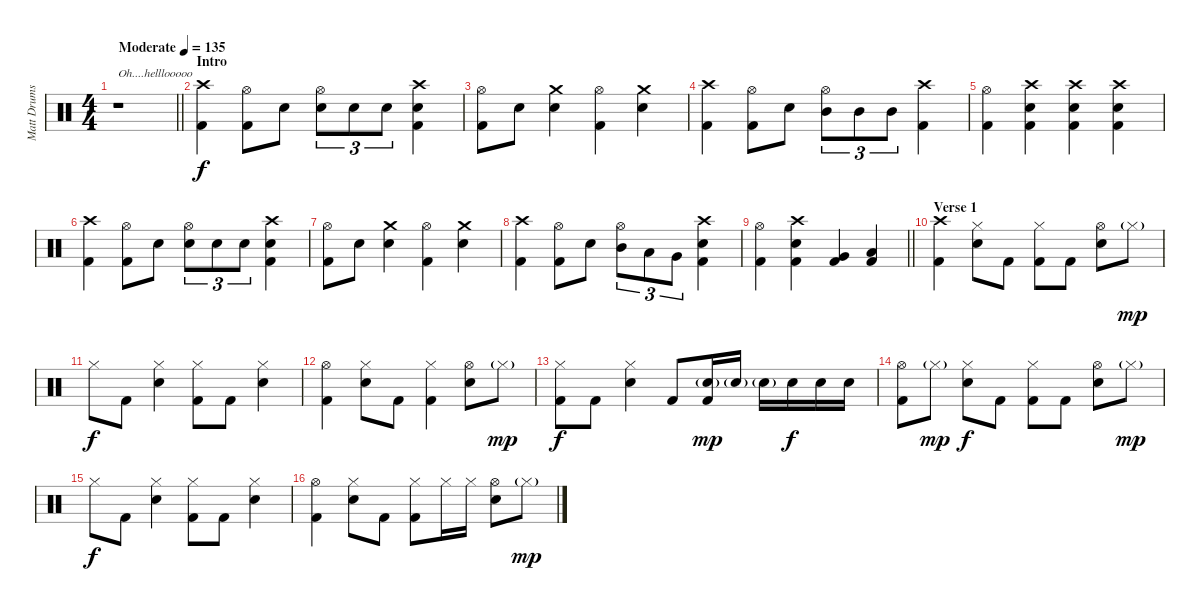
\track ("Matt Drums" "Matt Drums") {instrument percussion}
\staff {score}
\articulation defaults
\ts (4 4)
\tempo (135 "Moderate")
\clef neutral
\barLineRight lightlight
\ks c
r.1{txt "Oh....helllooooo" dy f} |
\section ("" "Intro")
("Crash high (hit)" "Kick (hit) 2").4 ("Hi-Hat (open)" "Kick (hit) 2").8 "Snare (hit) 2".8 ("Hi-Hat (open)" "Snare (hit) 2").8{tu (3 2)} "Snare (hit) 2".8{tu (3 2)} "Snare (hit) 2".8{tu (3 2)} ("Crash high (hit)" "Snare (hit) 2" "Kick (hit) 2").4 |
("Hi-Hat (open)" "Kick (hit) 2").8 "Snare (hit) 2".8 ("Crash medium (hit)" "Snare (hit) 2").4 ("Hi-Hat (open)" "Kick (hit) 2").4 ("Crash medium (hit)" "Snare (hit) 2").4 |
("Crash high (hit)" "Kick (hit) 2").4 ("Hi-Hat (open)" "Kick (hit) 2").8 "Snare (hit) 2".8 ("Hi-Hat (open)" "Mid Tom (hit)").8{tu (3 2)} "Mid Tom (hit)".8{tu (3 2)} "Mid Tom (hit)".8{tu (3 2)} ("Crash high (hit)" "Kick (hit) 2").4 |
("Hi-Hat (open)" "Kick (hit) 2").4 ("Crash high (hit)" "Snare (hit) 2" "Kick (hit) 2").4 ("Crash high (hit)" "Snare (hit) 2" "Kick (hit) 2").4 ("Crash high (hit)" "Snare (hit) 2" "Kick (hit) 2").4 |
("Crash high (hit)" "Kick (hit) 2").4 ("Hi-Hat (open)" "Kick (hit) 2").8 "Snare (hit) 2".8 ("Hi-Hat (open)" "Snare (hit) 2").8{tu (3 2)} "Snare (hit) 2".8{tu (3 2)} "Snare (hit) 2".8{tu (3 2)} ("Crash high (hit)" "Snare (hit) 2" "Kick (hit) 2").4 |
("Hi-Hat (open)" "Kick (hit) 2").8 "Snare (hit) 2".8 ("Crash medium (hit)" "Snare (hit) 2").4 ("Hi-Hat (open)" "Kick (hit) 2").4 ("Crash medium (hit)" "Snare (hit) 2").4 |
("Crash high (hit)" "Kick (hit) 2").4 ("Hi-Hat (open)" "Kick (hit) 2").8 "Snare (hit) 2".8 ("Hi-Hat (open)" "Mid Tom (hit)").8{tu (3 2)} "Low Tom (hit)".8{tu (3 2)} "Very Low Tom (hit)".8{tu (3 2)} ("Crash high (hit)" "Snare (hit) 2" "Kick (hit) 2").4 |
\barLineRight lightlight
("Hi-Hat (open)" "Kick (hit) 2").4 ("Crash high (hit)" "Snare (hit) 2" "Kick (hit) 2").4 ("Very Low Tom (hit)" "Kick (hit) 2").4 ("Low Floor Tom (hit)" "Kick (hit) 2").4 |
\section ("" "Verse 1")
("Crash high (hit)" "Kick (hit) 2").4 ("Hi-Hat (closed)" "Snare (hit) 2").8 "Kick (hit) 2".8 ("Hi-Hat (closed)" "Kick (hit) 2").8 "Kick (hit) 2".8 ("Hi-Hat (open)" "Snare (hit) 2").8 "Hi-Hat (closed)"{g}.8{dy mp} |
"Hi-Hat (closed)".8{dy f} "Kick (hit) 2".8 ("Hi-Hat (closed)" "Snare (hit) 2").4 ("Hi-Hat (closed)" "Kick (hit) 2").8 "Kick (hit) 2".8 ("Hi-Hat (closed)" "Snare (hit) 2").4 |
("Hi-Hat (open)" "Kick (hit) 2").4 ("Hi-Hat (closed)" "Snare (hit) 2").8 "Kick (hit) 2".8 ("Hi-Hat (closed)" "Kick (hit) 2").4 ("Hi-Hat (open)" "Snare (hit) 2").8 "Hi-Hat (closed)"{g}.8{dy mp} |
("Hi-Hat (closed)" "Kick (hit) 2").8{dy f} "Kick (hit) 2".8 ("Hi-Hat (closed)" "Snare (hit) 2").4 "Kick (hit) 2".8 ("Snare (hit) 2"{g} "Kick (hit) 2").16{dy mp} "Snare (hit) 2"{g}.16 "Snare (hit) 2"{g}.16 "Snare (hit) 2".16{dy f} "Snare (hit) 2".16 "Snare (hit) 2".16 |
("Hi-Hat (open)" "Kick (hit) 2").8 "Hi-Hat (closed)"{g}.8{dy mp} ("Hi-Hat (closed)" "Snare (hit) 2").8{dy f} "Kick (hit) 2".8 ("Hi-Hat (closed)" "Kick (hit) 2").8 "Kick (hit) 2".8 ("Hi-Hat (open)" "Snare (hit) 2").8 "Hi-Hat (closed)"{g}.8{dy mp} |
"Hi-Hat (closed)".8{dy f} "Kick (hit) 2".8 ("Hi-Hat (closed)" "Snare (hit) 2").4 ("Hi-Hat (closed)" "Kick (hit) 2").8 "Kick (hit) 2".8 ("Hi-Hat (closed)" "Snare (hit) 2").4 |
("Hi-Hat (open)" "Kick (hit) 2").4 ("Hi-Hat (closed)" "Snare (hit) 2").8 "Kick (hit) 2".8 ("Hi-Hat (closed)" "Kick (hit) 2").8 "Hi-Hat (closed)".16 "Hi-Hat (closed)".16 ("Hi-Hat (open)" "Snare (hit) 2").8 "Hi-Hat (closed)"{g}.8{dy mp}
